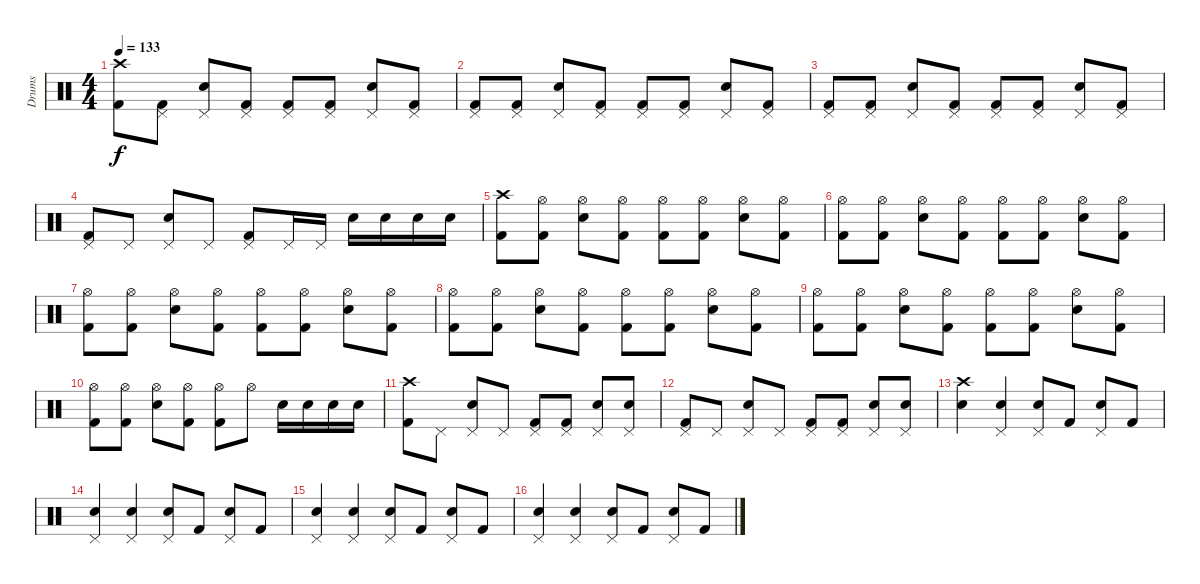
\track ("Drums" "Drums") {instrument percussion}
\staff {score}
\articulation defaults
\ts (4 4)
\tempo 133
\clef neutral
\ks c
("Crash high (hit)" "Kick (hit) 2").8{dy f} ("Pedal Hi-Hat (hit)" "Kick (hit) 2").8 ("Pedal Hi-Hat (hit)" "Snare (hit) 2").8 ("Pedal Hi-Hat (hit)" "Kick (hit) 2").8 ("Pedal Hi-Hat (hit)" "Kick (hit) 2").8 ("Pedal Hi-Hat (hit)" "Kick (hit) 2").8 ("Pedal Hi-Hat (hit)" "Snare (hit) 2").8 ("Pedal Hi-Hat (hit)" "Kick (hit) 2").8 |
("Pedal Hi-Hat (hit)" "Kick (hit) 2").8 ("Pedal Hi-Hat (hit)" "Kick (hit) 2").8 ("Pedal Hi-Hat (hit)" "Snare (hit) 2").8 ("Pedal Hi-Hat (hit)" "Kick (hit) 2").8 ("Pedal Hi-Hat (hit)" "Kick (hit) 2").8 ("Pedal Hi-Hat (hit)" "Kick (hit) 2").8 ("Pedal Hi-Hat (hit)" "Snare (hit) 2").8 ("Pedal Hi-Hat (hit)" "Kick (hit) 2").8 |
("Pedal Hi-Hat (hit)" "Kick (hit) 2").8 ("Pedal Hi-Hat (hit)" "Kick (hit) 2").8 ("Pedal Hi-Hat (hit)" "Snare (hit) 2").8 ("Pedal Hi-Hat (hit)" "Kick (hit) 2").8 ("Pedal Hi-Hat (hit)" "Kick (hit) 2").8 ("Pedal Hi-Hat (hit)" "Kick (hit) 2").8 ("Pedal Hi-Hat (hit)" "Snare (hit) 2").8 ("Pedal Hi-Hat (hit)" "Kick (hit) 2").8 |
("Pedal Hi-Hat (hit)" "Kick (hit) 2").8 "Pedal Hi-Hat (hit)".8 ("Pedal Hi-Hat (hit)" "Snare (hit) 2").8 "Pedal Hi-Hat (hit)".8 ("Pedal Hi-Hat (hit)" "Kick (hit) 2").8 "Pedal Hi-Hat (hit)".16 "Pedal Hi-Hat (hit)".16 "Snare (hit) 2".16 "Snare (hit) 2".16 "Snare (hit) 2".16 "Snare (hit) 2".16 |
("Crash high (hit)" "Kick (hit) 2").8 ("Hi-Hat (open)" "Kick (hit) 2").8 ("Hi-Hat (open)" "Snare (hit) 2").8 ("Hi-Hat (open)" "Kick (hit) 2").8 ("Hi-Hat (open)" "Kick (hit) 2").8 ("Hi-Hat (open)" "Kick (hit) 2").8 ("Hi-Hat (open)" "Snare (hit) 2").8 ("Hi-Hat (open)" "Kick (hit) 2").8 |
("Hi-Hat (open)" "Kick (hit) 2").8 ("Hi-Hat (open)" "Kick (hit) 2").8 ("Hi-Hat (open)" "Snare (hit) 2").8 ("Hi-Hat (open)" "Kick (hit) 2").8 ("Hi-Hat (open)" "Kick (hit) 2").8 ("Hi-Hat (open)" "Kick (hit) 2").8 ("Hi-Hat (open)" "Snare (hit) 2").8 ("Hi-Hat (open)" "Kick (hit) 2").8 |
("Hi-Hat (open)" "Kick (hit) 2").8 ("Hi-Hat (open)" "Kick (hit) 2").8 ("Hi-Hat (open)" "Snare (hit) 2").8 ("Hi-Hat (open)" "Kick (hit) 2").8 ("Hi-Hat (open)" "Kick (hit) 2").8 ("Hi-Hat (open)" "Kick (hit) 2").8 ("Hi-Hat (open)" "Snare (hit) 2").8 ("Hi-Hat (open)" "Kick (hit) 2").8 |
("Hi-Hat (open)" "Kick (hit) 2").8 ("Hi-Hat (open)" "Kick (hit) 2").8 ("Hi-Hat (open)" "Snare (hit) 2").8 ("Hi-Hat (open)" "Kick (hit) 2").8 ("Hi-Hat (open)" "Kick (hit) 2").8 ("Hi-Hat (open)" "Kick (hit) 2").8 ("Hi-Hat (open)" "Snare (hit) 2").8 ("Hi-Hat (open)" "Kick (hit) 2").8 |
("Hi-Hat (open)" "Kick (hit) 2").8 ("Hi-Hat (open)" "Kick (hit) 2").8 ("Hi-Hat (open)" "Snare (hit) 2").8 ("Hi-Hat (open)" "Kick (hit) 2").8 ("Hi-Hat (open)" "Kick (hit) 2").8 ("Hi-Hat (open)" "Kick (hit) 2").8 ("Hi-Hat (open)" "Snare (hit) 2").8 ("Hi-Hat (open)" "Kick (hit) 2").8 |
("Hi-Hat (open)" "Kick (hit) 2").8 ("Hi-Hat (open)" "Kick (hit) 2").8 ("Hi-Hat (open)" "Snare (hit) 2").8 ("Hi-Hat (open)" "Kick (hit) 2").8 ("Hi-Hat (open)" "Kick (hit) 2").8 "Hi-Hat (open)".8 "Snare (hit) 2".16 "Snare (hit) 2".16 "Snare (hit) 2".16 "Snare (hit) 2".16 |
("Crash high (hit)" "Kick (hit) 2").8 "Pedal Hi-Hat (hit)".8 ("Pedal Hi-Hat (hit)" "Snare (hit) 2").8 "Pedal Hi-Hat (hit)".8 ("Pedal Hi-Hat (hit)" "Kick (hit) 2").8 ("Pedal Hi-Hat (hit)" "Kick (hit) 2").8 ("Pedal Hi-Hat (hit)" "Snare (hit) 2").8 ("Pedal Hi-Hat (hit)" "Snare (hit) 2").8 |
("Pedal Hi-Hat (hit)" "Kick (hit) 2").8 "Pedal Hi-Hat (hit)".8 ("Pedal Hi-Hat (hit)" "Snare (hit) 2").8 "Pedal Hi-Hat (hit)".8 ("Pedal Hi-Hat (hit)" "Kick (hit) 2").8 ("Pedal Hi-Hat (hit)" "Kick (hit) 2").8 ("Pedal Hi-Hat (hit)" "Snare (hit) 2").8 ("Pedal Hi-Hat (hit)" "Snare (hit) 2").8 |
("Crash high (hit)" "Snare (hit) 2").4 ("Pedal Hi-Hat (hit)" "Snare (hit) 2").4 ("Pedal Hi-Hat (hit)" "Snare (hit) 2").8 "Kick (hit) 2".8 ("Pedal Hi-Hat (hit)" "Snare (hit) 2").8 "Kick (hit) 2".8 |
("Pedal Hi-Hat (hit)" "Snare (hit) 2").4 ("Pedal Hi-Hat (hit)" "Snare (hit) 2").4 ("Pedal Hi-Hat (hit)" "Snare (hit) 2").8 "Kick (hit) 2".8 ("Pedal Hi-Hat (hit)" "Snare (hit) 2").8 "Kick (hit) 2".8 |
("Pedal Hi-Hat (hit)" "Snare (hit) 2").4 ("Pedal Hi-Hat (hit)" "Snare (hit) 2").4 ("Pedal Hi-Hat (hit)" "Snare (hit) 2").8 "Kick (hit) 2".8 ("Pedal Hi-Hat (hit)" "Snare (hit) 2").8 "Kick (hit) 2".8 |
("Pedal Hi-Hat (hit)" "Snare (hit) 2").4 ("Pedal Hi-Hat (hit)" "Snare (hit) 2").4 ("Pedal Hi-Hat (hit)" "Snare (hit) 2").8 "Kick (hit) 2".8 ("Pedal Hi-Hat (hit)" "Snare (hit) 2").8 "Kick (hit) 2".8
